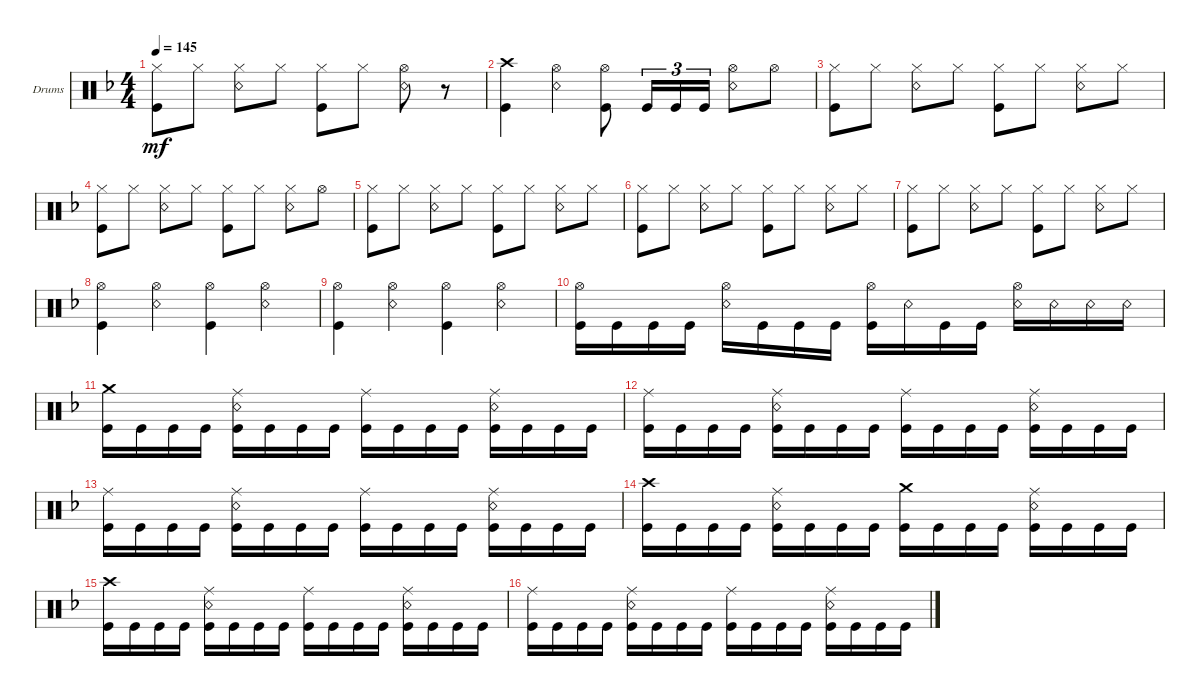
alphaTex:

\defaultSystemsLayout 4
\bracketExtendMode groupsimilarinstruments
\firstSystemTrackNameOrientation horizontal
\otherSystemsTrackNameOrientation horizontal
\track ("Drumkit" "Drums") {instrument percussion}
\staff {score}
\articulation defaults
\ts (4 4)
\tempo 145
\clef neutral
\ks dminor
("Kick (hit)" "Hi-Hat (closed)").8{dy mf} "Hi-Hat (closed)".8 ("Hi-Hat (closed)" "Snare (rim shot)").8 "Hi-Hat (closed)".8 ("Kick (hit)" "Hi-Hat (closed)").8 "Hi-Hat (closed)".8 ("Snare (rim shot)" "Hi-Hat (open)").8 r.8 |
("Kick (hit)" "Crash high (hit)").4 ("Hi-Hat (open)" "Snare (rim shot)").4 ("Kick (hit)" "Hi-Hat (open)").8 "Kick (hit)".16{tu (3 2)} "Kick (hit)".16{tu (3 2)} "Kick (hit)".16{tu (3 2)} ("Snare (rim shot)" "Hi-Hat (open)").8 "Hi-Hat (open)".8 |
("Kick (hit)" "Hi-Hat (closed)").8 "Hi-Hat (closed)".8 ("Hi-Hat (closed)" "Snare (rim shot)").8 "Hi-Hat (closed)".8 ("Kick (hit)" "Hi-Hat (closed)").8 "Hi-Hat (closed)".8 ("Hi-Hat (closed)" "Snare (rim shot)").8 "Hi-Hat (closed)".8 |
("Kick (hit)" "Hi-Hat (closed)").8 "Hi-Hat (closed)".8 ("Hi-Hat (closed)" "Snare (rim shot)").8 "Hi-Hat (closed)".8 ("Kick (hit)" "Hi-Hat (closed)").8 "Hi-Hat (closed)".8 ("Hi-Hat (closed)" "Snare (rim shot)").8 "Hi-Hat (open)".8 |
("Kick (hit)" "Hi-Hat (closed)").8 "Hi-Hat (closed)".8 ("Hi-Hat (closed)" "Snare (rim shot)").8 "Hi-Hat (closed)".8 ("Kick (hit)" "Hi-Hat (closed)").8 "Hi-Hat (closed)".8 ("Hi-Hat (closed)" "Snare (rim shot)").8 "Hi-Hat (closed)".8 |
("Kick (hit)" "Hi-Hat (closed)").8 "Hi-Hat (closed)".8 ("Hi-Hat (closed)" "Snare (rim shot)").8 "Hi-Hat (closed)".8 ("Kick (hit)" "Hi-Hat (closed)").8 "Hi-Hat (closed)".8 ("Hi-Hat (closed)" "Snare (rim shot)").8 "Hi-Hat (closed)".8 |
("Kick (hit)" "Hi-Hat (closed)").8 "Hi-Hat (closed)".8 ("Hi-Hat (closed)" "Snare (rim shot)").8 "Hi-Hat (closed)".8 ("Kick (hit)" "Hi-Hat (closed)").8 "Hi-Hat (closed)".8 ("Hi-Hat (closed)" "Snare (rim shot)").8 "Hi-Hat (closed)".8 |
("Kick (hit)" "Hi-Hat (open)").4 ("Hi-Hat (open)" "Snare (rim shot)").4 ("Hi-Hat (open)" "Kick (hit)").4 ("Hi-Hat (open)" "Snare (rim shot)").4 |
("Kick (hit)" "Hi-Hat (open)").4 ("Hi-Hat (open)" "Snare (rim shot)").4 ("Hi-Hat (open)" "Kick (hit)").4 ("Hi-Hat (open)" "Snare (rim shot)").4 |
("Hi-Hat (open)" "Kick (hit)").16 "Kick (hit)".16 "Kick (hit)".16 "Kick (hit)".16 ("Hi-Hat (open)" "Snare (rim shot)").16 "Kick (hit)".16 "Kick (hit)".16 "Kick (hit)".16 ("Hi-Hat (open)" "Kick (hit)").16 "Snare (rim shot)".16 "Kick (hit)".16 "Kick (hit)".16 ("Hi-Hat (open)" "Snare (rim shot)").16 "Snare (rim shot)".16 "Snare (rim shot)".16 "Snare (rim shot)".16 |
("Kick (hit)" "Crash medium (hit)").16 "Kick (hit)".16 "Kick (hit)".16 "Kick (hit)".16 ("Kick (hit)" "Ride (middle)" "Snare (rim shot)").16 "Kick (hit)".16 "Kick (hit)".16 "Kick (hit)".16 ("Kick (hit)" "Ride (middle)").16 "Kick (hit)".16 "Kick (hit)".16 "Kick (hit)".16 ("Kick (hit)" "Ride (middle)" "Snare (rim shot)").16 "Kick (hit)".16 "Kick (hit)".16 "Kick (hit)".16 |
("Kick (hit)" "Ride (middle)").16 "Kick (hit)".16 "Kick (hit)".16 "Kick (hit)".16 ("Kick (hit)" "Ride (middle)" "Snare (rim shot)").16 "Kick (hit)".16 "Kick (hit)".16 "Kick (hit)".16 ("Kick (hit)" "Ride (middle)").16 "Kick (hit)".16 "Kick (hit)".16 "Kick (hit)".16 ("Kick (hit)" "Ride (middle)" "Snare (rim shot)").16 "Kick (hit)".16 "Kick (hit)".16 "Kick (hit)".16 |
("Kick (hit)" "Ride (middle)").16 "Kick (hit)".16 "Kick (hit)".16 "Kick (hit)".16 ("Kick (hit)" "Ride (middle)" "Snare (rim shot)").16 "Kick (hit)".16 "Kick (hit)".16 "Kick (hit)".16 ("Kick (hit)" "Ride (middle)").16 "Kick (hit)".16 "Kick (hit)".16 "Kick (hit)".16 ("Kick (hit)" "Ride (middle)" "Snare (rim shot)").16 "Kick (hit)".16 "Kick (hit)".16 "Kick (hit)".16 |
("Kick (hit)" "Crash high (hit)").16 "Kick (hit)".16 "Kick (hit)".16 "Kick (hit)".16 ("Kick (hit)" "Ride (middle)" "Snare (rim shot)").16 "Kick (hit)".16 "Kick (hit)".16 "Kick (hit)".16 ("Kick (hit)" "Crash medium (hit)").16 "Kick (hit)".16 "Kick (hit)".16 "Kick (hit)".16 ("Kick (hit)" "Ride (middle)" "Snare (rim shot)").16 "Kick (hit)".16 "Kick (hit)".16 "Kick (hit)".16 |
("Kick (hit)" "Crash high (hit)").16 "Kick (hit)".16 "Kick (hit)".16 "Kick (hit)".16 ("Kick (hit)" "Ride (middle)" "Snare (rim shot)").16 "Kick (hit)".16 "Kick (hit)".16 "Kick (hit)".16 ("Kick (hit)" "Ride (middle)").16 "Kick (hit)".16 "Kick (hit)".16 "Kick (hit)".16 ("Kick (hit)" "Ride (middle)" "Snare (rim shot)").16 "Kick (hit)".16 "Kick (hit)".16 "Kick (hit)".16 |
("Kick (hit)" "Ride (middle)").16 "Kick (hit)".16 "Kick (hit)".16 "Kick (hit)".16 ("Kick (hit)" "Ride (middle)" "Snare (rim shot)").16 "Kick (hit)".16 "Kick (hit)".16 "Kick (hit)".16 ("Kick (hit)" "Ride (middle)").16 "Kick (hit)".16 "Kick (hit)".16 "Kick (hit)".16 ("Kick (hit)" "Ride (middle)" "Snare (rim shot)").16 "Kick (hit)".16 "Kick (hit)".16 "Kick (hit)".16
